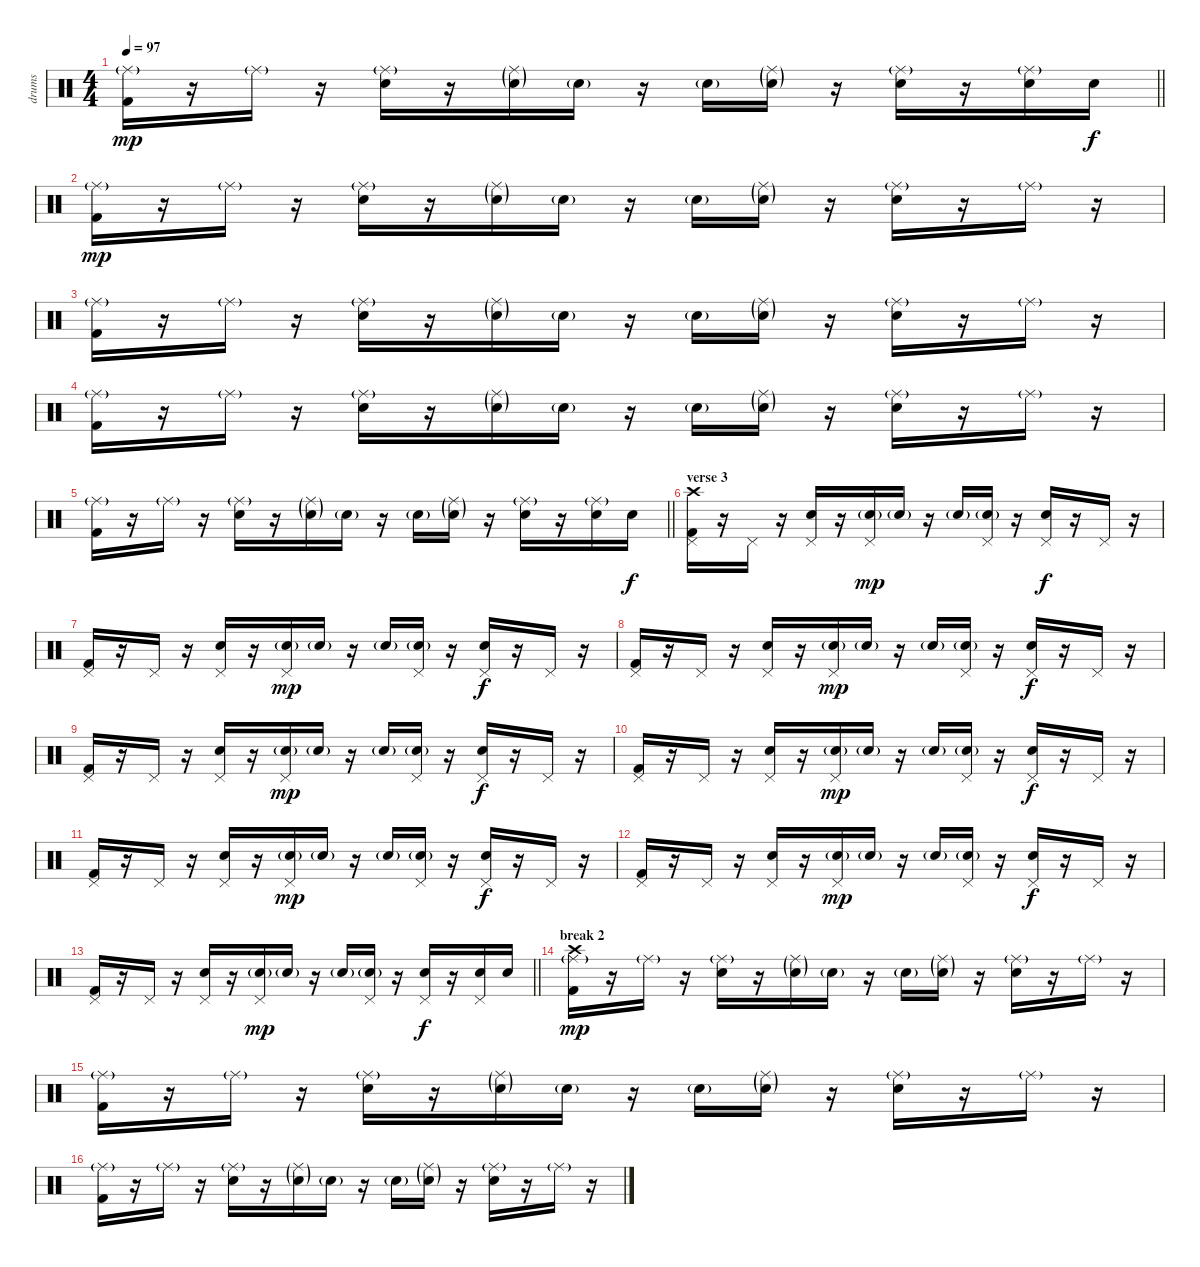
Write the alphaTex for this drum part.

\track ("drums" "drums") {instrument percussion}
\staff {score}
\articulation defaults
\ts (4 4)
\tempo 97
\clef neutral
\barLineRight lightlight
\ks c
("Kick (hit) 2" "Ride (middle)"{g}).16{dy mp} r.16 "Ride (middle)"{g}.16 r.16 ("Electric Snare (hit)" "Ride (middle)"{g}).16 r.16 ("Electric Snare (hit)"{g} "Ride (middle)"{g}).16 "Electric Snare (hit)"{g}.16 r.16 "Electric Snare (hit)"{g}.16 ("Electric Snare (hit)"{g} "Ride (middle)"{g}).16 r.16 ("Electric Snare (hit)" "Ride (middle)"{g}).16 r.16 ("Electric Snare (hit)" "Ride (middle)"{g}).16 "Electric Snare (hit)".16{dy f} |
("Kick (hit) 2" "Ride (middle)"{g}).16{dy mp} r.16 "Ride (middle)"{g}.16 r.16 ("Electric Snare (hit)" "Ride (middle)"{g}).16 r.16 ("Electric Snare (hit)"{g} "Ride (middle)"{g}).16 "Electric Snare (hit)"{g}.16 r.16 "Electric Snare (hit)"{g}.16 ("Electric Snare (hit)"{g} "Ride (middle)"{g}).16 r.16 ("Electric Snare (hit)" "Ride (middle)"{g}).16 r.16 "Ride (middle)"{g}.16 r.16 |
("Kick (hit) 2" "Ride (middle)"{g}).16 r.16 "Ride (middle)"{g}.16 r.16 ("Electric Snare (hit)" "Ride (middle)"{g}).16 r.16 ("Electric Snare (hit)"{g} "Ride (middle)"{g}).16 "Electric Snare (hit)"{g}.16 r.16 "Electric Snare (hit)"{g}.16 ("Electric Snare (hit)"{g} "Ride (middle)"{g}).16 r.16 ("Electric Snare (hit)" "Ride (middle)"{g}).16 r.16 "Ride (middle)"{g}.16 r.16 |
("Kick (hit) 2" "Ride (middle)"{g}).16 r.16 "Ride (middle)"{g}.16 r.16 ("Electric Snare (hit)" "Ride (middle)"{g}).16 r.16 ("Electric Snare (hit)"{g} "Ride (middle)"{g}).16 "Electric Snare (hit)"{g}.16 r.16 "Electric Snare (hit)"{g}.16 ("Electric Snare (hit)"{g} "Ride (middle)"{g}).16 r.16 ("Electric Snare (hit)" "Ride (middle)"{g}).16 r.16 "Ride (middle)"{g}.16 r.16 |
\barLineRight lightlight
("Kick (hit) 2" "Ride (middle)"{g}).16 r.16 "Ride (middle)"{g}.16 r.16 ("Electric Snare (hit)" "Ride (middle)"{g}).16 r.16 ("Electric Snare (hit)"{g} "Ride (middle)"{g}).16 "Electric Snare (hit)"{g}.16 r.16 "Electric Snare (hit)"{g}.16 ("Electric Snare (hit)"{g} "Ride (middle)"{g}).16 r.16 ("Electric Snare (hit)" "Ride (middle)"{g}).16 r.16 ("Electric Snare (hit)" "Ride (middle)"{g}).16 "Electric Snare (hit)".16{dy f} |
\section ("" "verse 3")
("Kick (hit) 2" "Pedal Hi-Hat (hit)" "Crash high (hit)").16 r.16 "Pedal Hi-Hat (hit)".16 r.16 ("Electric Snare (hit)" "Pedal Hi-Hat (hit)").16 r.16 ("Electric Snare (hit)"{g} "Pedal Hi-Hat (hit)").16{dy mp} "Electric Snare (hit)"{g}.16 r.16 "Electric Snare (hit)"{g}.16 ("Electric Snare (hit)"{g} "Pedal Hi-Hat (hit)").16 r.16 ("Electric Snare (hit)" "Pedal Hi-Hat (hit)").16{dy f} r.16 "Pedal Hi-Hat (hit)".16 r.16 |
("Kick (hit) 2" "Pedal Hi-Hat (hit)").16 r.16 "Pedal Hi-Hat (hit)".16 r.16 ("Electric Snare (hit)" "Pedal Hi-Hat (hit)").16 r.16 ("Electric Snare (hit)"{g} "Pedal Hi-Hat (hit)").16{dy mp} "Electric Snare (hit)"{g}.16 r.16 "Electric Snare (hit)"{g}.16 ("Electric Snare (hit)"{g} "Pedal Hi-Hat (hit)").16 r.16 ("Electric Snare (hit)" "Pedal Hi-Hat (hit)").16{dy f} r.16 "Pedal Hi-Hat (hit)".16 r.16 |
("Kick (hit) 2" "Pedal Hi-Hat (hit)").16 r.16 "Pedal Hi-Hat (hit)".16 r.16 ("Electric Snare (hit)" "Pedal Hi-Hat (hit)").16 r.16 ("Electric Snare (hit)"{g} "Pedal Hi-Hat (hit)").16{dy mp} "Electric Snare (hit)"{g}.16 r.16 "Electric Snare (hit)"{g}.16 ("Electric Snare (hit)"{g} "Pedal Hi-Hat (hit)").16 r.16 ("Electric Snare (hit)" "Pedal Hi-Hat (hit)").16{dy f} r.16 "Pedal Hi-Hat (hit)".16 r.16 |
("Kick (hit) 2" "Pedal Hi-Hat (hit)").16 r.16 "Pedal Hi-Hat (hit)".16 r.16 ("Electric Snare (hit)" "Pedal Hi-Hat (hit)").16 r.16 ("Electric Snare (hit)"{g} "Pedal Hi-Hat (hit)").16{dy mp} "Electric Snare (hit)"{g}.16 r.16 "Electric Snare (hit)"{g}.16 ("Electric Snare (hit)"{g} "Pedal Hi-Hat (hit)").16 r.16 ("Electric Snare (hit)" "Pedal Hi-Hat (hit)").16{dy f} r.16 "Pedal Hi-Hat (hit)".16 r.16 |
("Kick (hit) 2" "Pedal Hi-Hat (hit)").16 r.16 "Pedal Hi-Hat (hit)".16 r.16 ("Electric Snare (hit)" "Pedal Hi-Hat (hit)").16 r.16 ("Electric Snare (hit)"{g} "Pedal Hi-Hat (hit)").16{dy mp} "Electric Snare (hit)"{g}.16 r.16 "Electric Snare (hit)"{g}.16 ("Electric Snare (hit)"{g} "Pedal Hi-Hat (hit)").16 r.16 ("Electric Snare (hit)" "Pedal Hi-Hat (hit)").16{dy f} r.16 "Pedal Hi-Hat (hit)".16 r.16 |
("Kick (hit) 2" "Pedal Hi-Hat (hit)").16 r.16 "Pedal Hi-Hat (hit)".16 r.16 ("Electric Snare (hit)" "Pedal Hi-Hat (hit)").16 r.16 ("Electric Snare (hit)"{g} "Pedal Hi-Hat (hit)").16{dy mp} "Electric Snare (hit)"{g}.16 r.16 "Electric Snare (hit)"{g}.16 ("Electric Snare (hit)"{g} "Pedal Hi-Hat (hit)").16 r.16 ("Electric Snare (hit)" "Pedal Hi-Hat (hit)").16{dy f} r.16 "Pedal Hi-Hat (hit)".16 r.16 |
("Kick (hit) 2" "Pedal Hi-Hat (hit)").16 r.16 "Pedal Hi-Hat (hit)".16 r.16 ("Electric Snare (hit)" "Pedal Hi-Hat (hit)").16 r.16 ("Electric Snare (hit)"{g} "Pedal Hi-Hat (hit)").16{dy mp} "Electric Snare (hit)"{g}.16 r.16 "Electric Snare (hit)"{g}.16 ("Electric Snare (hit)"{g} "Pedal Hi-Hat (hit)").16 r.16 ("Electric Snare (hit)" "Pedal Hi-Hat (hit)").16{dy f} r.16 "Pedal Hi-Hat (hit)".16 r.16 |
\barLineRight lightlight
("Kick (hit) 2" "Pedal Hi-Hat (hit)").16 r.16 "Pedal Hi-Hat (hit)".16 r.16 ("Electric Snare (hit)" "Pedal Hi-Hat (hit)").16 r.16 ("Electric Snare (hit)"{g} "Pedal Hi-Hat (hit)").16{dy mp} "Electric Snare (hit)"{g}.16 r.16 "Electric Snare (hit)"{g}.16 ("Electric Snare (hit)"{g} "Pedal Hi-Hat (hit)").16 r.16 ("Electric Snare (hit)" "Pedal Hi-Hat (hit)").16{dy f} r.16 ("Electric Snare (hit)" "Pedal Hi-Hat (hit)").16 "Electric Snare (hit)".16 |
\section ("" "break 2")
("Kick (hit) 2" "Ride (middle)"{g} "Crash high (hit)").16{dy mp} r.16 "Ride (middle)"{g}.16 r.16 ("Electric Snare (hit)" "Ride (middle)"{g}).16 r.16 ("Electric Snare (hit)"{g} "Ride (middle)"{g}).16 "Electric Snare (hit)"{g}.16 r.16 "Electric Snare (hit)"{g}.16 ("Electric Snare (hit)"{g} "Ride (middle)"{g}).16 r.16 ("Electric Snare (hit)" "Ride (middle)"{g}).16 r.16 "Ride (middle)"{g}.16 r.16 |
("Kick (hit) 2" "Ride (middle)"{g}).16 r.16 "Ride (middle)"{g}.16 r.16 ("Electric Snare (hit)" "Ride (middle)"{g}).16 r.16 ("Electric Snare (hit)"{g} "Ride (middle)"{g}).16 "Electric Snare (hit)"{g}.16 r.16 "Electric Snare (hit)"{g}.16 ("Electric Snare (hit)"{g} "Ride (middle)"{g}).16 r.16 ("Electric Snare (hit)" "Ride (middle)"{g}).16 r.16 "Ride (middle)"{g}.16 r.16 |
("Kick (hit) 2" "Ride (middle)"{g}).16 r.16 "Ride (middle)"{g}.16 r.16 ("Electric Snare (hit)" "Ride (middle)"{g}).16 r.16 ("Electric Snare (hit)"{g} "Ride (middle)"{g}).16 "Electric Snare (hit)"{g}.16 r.16 "Electric Snare (hit)"{g}.16 ("Electric Snare (hit)"{g} "Ride (middle)"{g}).16 r.16 ("Electric Snare (hit)" "Ride (middle)"{g}).16 r.16 "Ride (middle)"{g}.16 r.16
